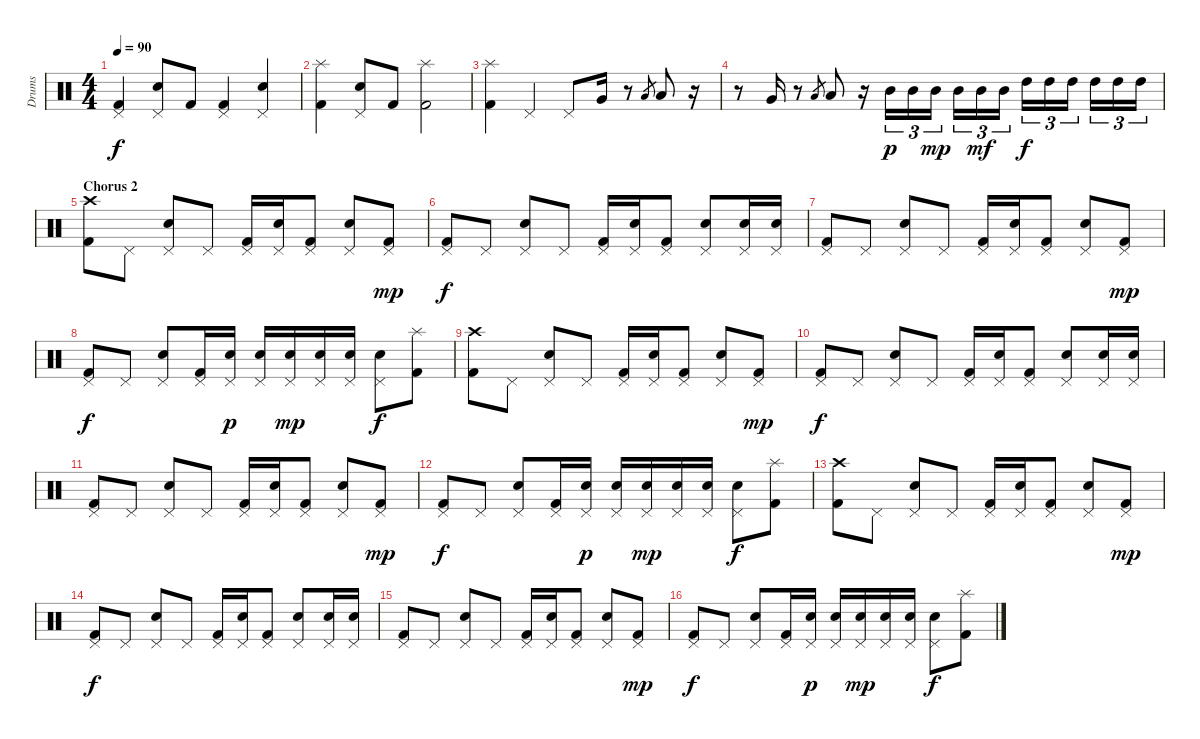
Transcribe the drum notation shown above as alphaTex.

\track ("Drums" "Drums") {instrument percussion}
\staff {score}
\articulation defaults
\ts (4 4)
\tempo 90
\clef neutral
\ks c
("Pedal Hi-Hat (hit)" "Kick (hit) 2").4{dy f} ("Pedal Hi-Hat (hit)" "Snare (hit) 2").8 "Kick (hit) 2".8 ("Pedal Hi-Hat (hit)" "Kick (hit) 2").4 ("Pedal Hi-Hat (hit)" "Snare (hit) 2").4 |
("Splash (hit)" "Kick (hit) 2").4 ("Pedal Hi-Hat (hit)" "Snare (hit) 2").8 "Kick (hit) 2".8 ("Splash (hit)" "Kick (hit) 2").2 |
("Splash (hit)" "Kick (hit) 2").4 "Pedal Hi-Hat (hit)".4 "Pedal Hi-Hat (hit)".8 "Very Low Tom (hit)".16 r.8 "Low Tom (hit)"{h}.8{gr} "Low Tom (hit)".8 r.16 |
r.8 "Very Low Tom (hit)".16 r.8 "Low Tom (hit)".8{gr} "Low Tom (hit)".8 r.16 "Mid Tom (hit)".16{tu (3 2) dy p} "Mid Tom (hit)".16{tu (3 2)} "Mid Tom (hit)".16{tu (3 2) dy mp} "Mid Tom (hit)".16{tu (3 2)} "Mid Tom (hit)".16{tu (3 2) dy mf} "Mid Tom (hit)".16{tu (3 2)} "High Tom (hit)".16{tu (3 2) dy f} "High Tom (hit)".16{tu (3 2)} "High Tom (hit)".16{tu (3 2)} "High Tom (hit)".16{tu (3 2)} "High Tom (hit)".16{tu (3 2)} "High Tom (hit)".16{tu (3 2)} |
\section ("" "Chorus 2")
("Crash high (hit)" "Kick (hit) 2").8 "Pedal Hi-Hat (hit)".8 ("Pedal Hi-Hat (hit)" "Electric Snare (hit)").8 "Pedal Hi-Hat (hit)".8 ("Pedal Hi-Hat (hit)" "Kick (hit) 2").16 ("Pedal Hi-Hat (hit)" "Electric Snare (hit)").16 ("Pedal Hi-Hat (hit)" "Kick (hit) 2").8 ("Pedal Hi-Hat (hit)" "Electric Snare (hit)").8 ("Pedal Hi-Hat (hit)" "Kick (hit) 2").8{dy mp} |
("Pedal Hi-Hat (hit)" "Kick (hit) 2").8{dy f} "Pedal Hi-Hat (hit)".8 ("Pedal Hi-Hat (hit)" "Electric Snare (hit)").8 "Pedal Hi-Hat (hit)".8 ("Pedal Hi-Hat (hit)" "Kick (hit) 2").16 ("Pedal Hi-Hat (hit)" "Electric Snare (hit)").16 ("Pedal Hi-Hat (hit)" "Kick (hit) 2").8 ("Pedal Hi-Hat (hit)" "Electric Snare (hit)").8 ("Pedal Hi-Hat (hit)" "Electric Snare (hit)").16 ("Pedal Hi-Hat (hit)" "Electric Snare (hit)").16 |
("Pedal Hi-Hat (hit)" "Kick (hit) 2").8 "Pedal Hi-Hat (hit)".8 ("Pedal Hi-Hat (hit)" "Electric Snare (hit)").8 "Pedal Hi-Hat (hit)".8 ("Pedal Hi-Hat (hit)" "Kick (hit) 2").16 ("Pedal Hi-Hat (hit)" "Electric Snare (hit)").16 ("Pedal Hi-Hat (hit)" "Kick (hit) 2").8 ("Pedal Hi-Hat (hit)" "Electric Snare (hit)").8 ("Pedal Hi-Hat (hit)" "Kick (hit) 2").8{dy mp} |
("Pedal Hi-Hat (hit)" "Kick (hit) 2").8{dy f} "Pedal Hi-Hat (hit)".8 ("Pedal Hi-Hat (hit)" "Electric Snare (hit)").8 ("Pedal Hi-Hat (hit)" "Kick (hit) 2").16 ("Pedal Hi-Hat (hit)" "Electric Snare (hit)").16{dy p} ("Pedal Hi-Hat (hit)" "Electric Snare (hit)").16 ("Pedal Hi-Hat (hit)" "Electric Snare (hit)").16{dy mp} ("Pedal Hi-Hat (hit)" "Electric Snare (hit)").16 ("Pedal Hi-Hat (hit)" "Electric Snare (hit)").16 ("Pedal Hi-Hat (hit)" "Electric Snare (hit)").8{dy f} ("Splash (hit)" "Kick (hit) 2").8 |
("Crash high (hit)" "Kick (hit) 2").8 "Pedal Hi-Hat (hit)".8 ("Pedal Hi-Hat (hit)" "Electric Snare (hit)").8 "Pedal Hi-Hat (hit)".8 ("Pedal Hi-Hat (hit)" "Kick (hit) 2").16 ("Pedal Hi-Hat (hit)" "Electric Snare (hit)").16 ("Pedal Hi-Hat (hit)" "Kick (hit) 2").8 ("Pedal Hi-Hat (hit)" "Electric Snare (hit)").8 ("Pedal Hi-Hat (hit)" "Kick (hit) 2").8{dy mp} |
("Pedal Hi-Hat (hit)" "Kick (hit) 2").8{dy f} "Pedal Hi-Hat (hit)".8 ("Pedal Hi-Hat (hit)" "Electric Snare (hit)").8 "Pedal Hi-Hat (hit)".8 ("Pedal Hi-Hat (hit)" "Kick (hit) 2").16 ("Pedal Hi-Hat (hit)" "Electric Snare (hit)").16 ("Pedal Hi-Hat (hit)" "Kick (hit) 2").8 ("Pedal Hi-Hat (hit)" "Electric Snare (hit)").8 ("Pedal Hi-Hat (hit)" "Electric Snare (hit)").16 ("Pedal Hi-Hat (hit)" "Electric Snare (hit)").16 |
("Pedal Hi-Hat (hit)" "Kick (hit) 2").8 "Pedal Hi-Hat (hit)".8 ("Pedal Hi-Hat (hit)" "Electric Snare (hit)").8 "Pedal Hi-Hat (hit)".8 ("Pedal Hi-Hat (hit)" "Kick (hit) 2").16 ("Pedal Hi-Hat (hit)" "Electric Snare (hit)").16 ("Pedal Hi-Hat (hit)" "Kick (hit) 2").8 ("Pedal Hi-Hat (hit)" "Electric Snare (hit)").8 ("Pedal Hi-Hat (hit)" "Kick (hit) 2").8{dy mp} |
("Pedal Hi-Hat (hit)" "Kick (hit) 2").8{dy f} "Pedal Hi-Hat (hit)".8 ("Pedal Hi-Hat (hit)" "Electric Snare (hit)").8 ("Pedal Hi-Hat (hit)" "Kick (hit) 2").16 ("Pedal Hi-Hat (hit)" "Electric Snare (hit)").16{dy p} ("Pedal Hi-Hat (hit)" "Electric Snare (hit)").16 ("Pedal Hi-Hat (hit)" "Electric Snare (hit)").16{dy mp} ("Pedal Hi-Hat (hit)" "Electric Snare (hit)").16 ("Pedal Hi-Hat (hit)" "Electric Snare (hit)").16 ("Pedal Hi-Hat (hit)" "Electric Snare (hit)").8{dy f} ("Splash (hit)" "Kick (hit) 2").8 |
("Crash high (hit)" "Kick (hit) 2").8 "Pedal Hi-Hat (hit)".8 ("Pedal Hi-Hat (hit)" "Electric Snare (hit)").8 "Pedal Hi-Hat (hit)".8 ("Pedal Hi-Hat (hit)" "Kick (hit) 2").16 ("Pedal Hi-Hat (hit)" "Electric Snare (hit)").16 ("Pedal Hi-Hat (hit)" "Kick (hit) 2").8 ("Pedal Hi-Hat (hit)" "Electric Snare (hit)").8 ("Pedal Hi-Hat (hit)" "Kick (hit) 2").8{dy mp} |
("Pedal Hi-Hat (hit)" "Kick (hit) 2").8{dy f} "Pedal Hi-Hat (hit)".8 ("Pedal Hi-Hat (hit)" "Electric Snare (hit)").8 "Pedal Hi-Hat (hit)".8 ("Pedal Hi-Hat (hit)" "Kick (hit) 2").16 ("Pedal Hi-Hat (hit)" "Electric Snare (hit)").16 ("Pedal Hi-Hat (hit)" "Kick (hit) 2").8 ("Pedal Hi-Hat (hit)" "Electric Snare (hit)").8 ("Pedal Hi-Hat (hit)" "Electric Snare (hit)").16 ("Pedal Hi-Hat (hit)" "Electric Snare (hit)").16 |
("Pedal Hi-Hat (hit)" "Kick (hit) 2").8 "Pedal Hi-Hat (hit)".8 ("Pedal Hi-Hat (hit)" "Electric Snare (hit)").8 "Pedal Hi-Hat (hit)".8 ("Pedal Hi-Hat (hit)" "Kick (hit) 2").16 ("Pedal Hi-Hat (hit)" "Electric Snare (hit)").16 ("Pedal Hi-Hat (hit)" "Kick (hit) 2").8 ("Pedal Hi-Hat (hit)" "Electric Snare (hit)").8 ("Pedal Hi-Hat (hit)" "Kick (hit) 2").8{dy mp} |
("Pedal Hi-Hat (hit)" "Kick (hit) 2").8{dy f} "Pedal Hi-Hat (hit)".8 ("Pedal Hi-Hat (hit)" "Electric Snare (hit)").8 ("Pedal Hi-Hat (hit)" "Kick (hit) 2").16 ("Pedal Hi-Hat (hit)" "Electric Snare (hit)").16{dy p} ("Pedal Hi-Hat (hit)" "Electric Snare (hit)").16 ("Pedal Hi-Hat (hit)" "Electric Snare (hit)").16{dy mp} ("Pedal Hi-Hat (hit)" "Electric Snare (hit)").16 ("Pedal Hi-Hat (hit)" "Electric Snare (hit)").16 ("Pedal Hi-Hat (hit)" "Electric Snare (hit)").8{dy f} ("Splash (hit)" "Kick (hit) 2").8
